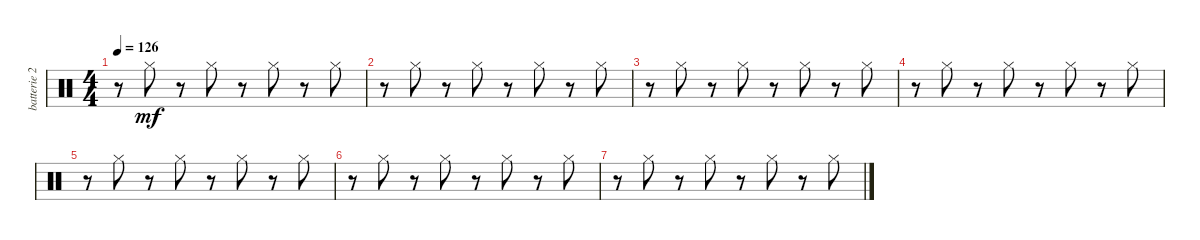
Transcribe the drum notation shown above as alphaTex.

\track ("batterie 2" "batterie 2") {instrument percussion}
\staff {score}
\articulation defaults
\ts (4 4)
\tempo 126
\clef neutral
\ks c
r.8{dy mf} "Hi-Hat (closed)".8 r.8 "Hi-Hat (closed)".8 r.8 "Hi-Hat (closed)".8 r.8 "Hi-Hat (closed)".8 |
r.8 "Hi-Hat (closed)".8{volume 16} r.8 "Hi-Hat (closed)".8{volume 15} r.8 "Hi-Hat (closed)".8{volume 14} r.8 "Hi-Hat (closed)".8{volume 14} |
r.8 "Hi-Hat (closed)".8{volume 13} r.8 "Hi-Hat (closed)".8{volume 12} r.8 "Hi-Hat (closed)".8{volume 12} r.8 "Hi-Hat (closed)".8{volume 11} |
r.8 "Hi-Hat (closed)".8{volume 10} r.8 "Hi-Hat (closed)".8{volume 10} r.8 "Hi-Hat (closed)".8{volume 9} r.8 "Hi-Hat (closed)".8{volume 8} |
r.8 "Hi-Hat (closed)".8{volume 8} r.8 "Hi-Hat (closed)".8{volume 7} r.8 "Hi-Hat (closed)".8{volume 6} r.8 "Hi-Hat (closed)".8{volume 6} |
r.8 "Hi-Hat (closed)".8{volume 5} r.8 "Hi-Hat (closed)".8{volume 4} r.8 "Hi-Hat (closed)".8{volume 4} r.8 "Hi-Hat (closed)".8{volume 3} |
r.8 "Hi-Hat (closed)".8{volume 2} r.8 "Hi-Hat (closed)".8{volume 2} r.8 "Hi-Hat (closed)".8{volume 1} r.8 "Hi-Hat (closed)".8{volume 0}
